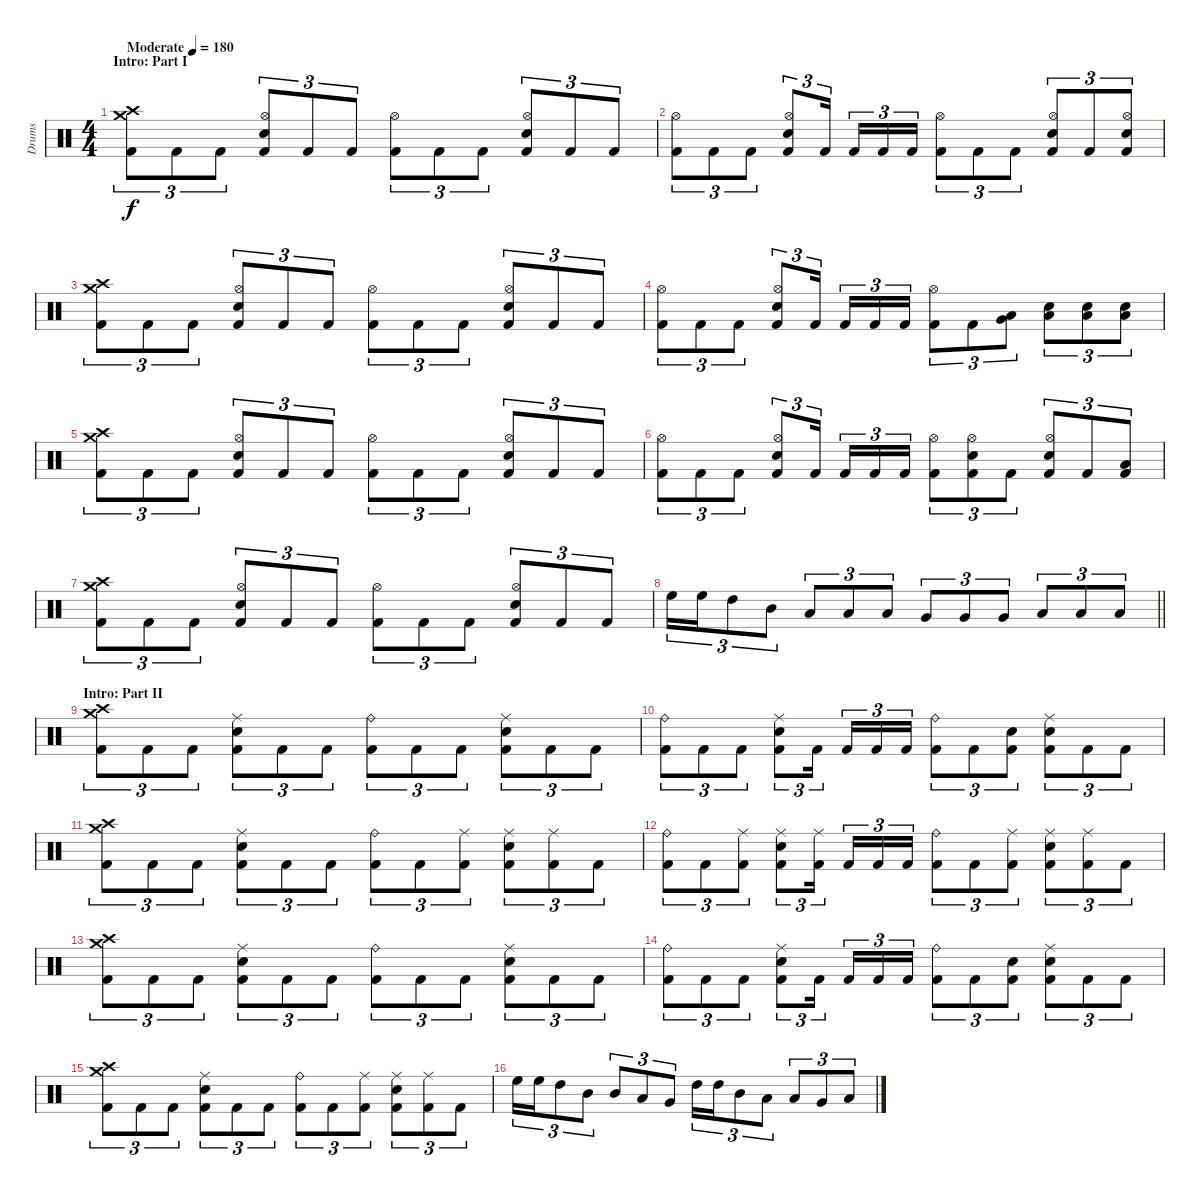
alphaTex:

\track ("Drums" "Drums") {instrument percussion}
\staff {score}
\articulation defaults
\ts (4 4)
\section ("" "Intro: Part I")
\tempo (180 "Moderate")
\clef neutral
\ks c
("Crash medium (hit)" "Crash high (hit)" "Kick (hit) 2").8{tu (3 2) dy f} "Kick (hit) 2".8{tu (3 2)} "Kick (hit) 2".8{tu (3 2)} ("Hi-Hat (open)" "Electric Snare (hit)" "Kick (hit) 2").8{tu (3 2)} "Kick (hit) 2".8{tu (3 2)} "Kick (hit) 2".8{tu (3 2)} ("Hi-Hat (open)" "Kick (hit) 2").8{tu (3 2)} "Kick (hit) 2".8{tu (3 2)} "Kick (hit) 2".8{tu (3 2)} ("Hi-Hat (open)" "Electric Snare (hit)" "Kick (hit) 2").8{tu (3 2)} "Kick (hit) 2".8{tu (3 2)} "Kick (hit) 2".8{tu (3 2)} |
("Hi-Hat (open)" "Kick (hit) 2").8{tu (3 2)} "Kick (hit) 2".8{tu (3 2)} "Kick (hit) 2".8{tu (3 2)} ("Hi-Hat (open)" "Electric Snare (hit)" "Kick (hit) 2").8{tu (3 2)} "Kick (hit) 2".16{tu (3 2) beam splitsecondary} "Kick (hit) 2".16{tu (3 2)} "Kick (hit) 2".16{tu (3 2)} "Kick (hit) 2".16{tu (3 2)} ("Hi-Hat (open)" "Kick (hit) 2").8{tu (3 2)} "Kick (hit) 2".8{tu (3 2)} "Kick (hit) 2".8{tu (3 2)} ("Hi-Hat (open)" "Electric Snare (hit)" "Kick (hit) 2").8{tu (3 2)} "Kick (hit) 2".8{tu (3 2)} ("Hi-Hat (open)" "Electric Snare (hit)" "Kick (hit) 2").8{tu (3 2)} |
("Crash medium (hit)" "Crash high (hit)" "Kick (hit) 2").8{tu (3 2)} "Kick (hit) 2".8{tu (3 2)} "Kick (hit) 2".8{tu (3 2)} ("Hi-Hat (open)" "Electric Snare (hit)" "Kick (hit) 2").8{tu (3 2)} "Kick (hit) 2".8{tu (3 2)} "Kick (hit) 2".8{tu (3 2)} ("Hi-Hat (open)" "Kick (hit) 2").8{tu (3 2)} "Kick (hit) 2".8{tu (3 2)} "Kick (hit) 2".8{tu (3 2)} ("Hi-Hat (open)" "Electric Snare (hit)" "Kick (hit) 2").8{tu (3 2)} "Kick (hit) 2".8{tu (3 2)} "Kick (hit) 2".8{tu (3 2)} |
("Hi-Hat (open)" "Kick (hit) 2").8{tu (3 2)} "Kick (hit) 2".8{tu (3 2)} "Kick (hit) 2".8{tu (3 2)} ("Hi-Hat (open)" "Electric Snare (hit)" "Kick (hit) 2").8{tu (3 2)} "Kick (hit) 2".16{tu (3 2) beam splitsecondary} "Kick (hit) 2".16{tu (3 2)} "Kick (hit) 2".16{tu (3 2)} "Kick (hit) 2".16{tu (3 2)} ("Hi-Hat (open)" "Kick (hit) 2").8{tu (3 2)} "Kick (hit) 2".8{tu (3 2)} ("Low Tom (hit)" "Very Low Tom (hit)").8{tu (3 2)} ("Low Floor Tom (hit)" "Electric Snare (hit)").8{tu (3 2)} ("Low Floor Tom (hit)" "Electric Snare (hit)").8{tu (3 2)} ("Low Floor Tom (hit)" "Electric Snare (hit)").8{tu (3 2)} |
("Crash medium (hit)" "Crash high (hit)" "Kick (hit) 2").8{tu (3 2)} "Kick (hit) 2".8{tu (3 2)} "Kick (hit) 2".8{tu (3 2)} ("Hi-Hat (open)" "Electric Snare (hit)" "Kick (hit) 2").8{tu (3 2)} "Kick (hit) 2".8{tu (3 2)} "Kick (hit) 2".8{tu (3 2)} ("Hi-Hat (open)" "Kick (hit) 2").8{tu (3 2)} "Kick (hit) 2".8{tu (3 2)} "Kick (hit) 2".8{tu (3 2)} ("Hi-Hat (open)" "Electric Snare (hit)" "Kick (hit) 2").8{tu (3 2)} "Kick (hit) 2".8{tu (3 2)} "Kick (hit) 2".8{tu (3 2)} |
("Hi-Hat (open)" "Kick (hit) 2").8{tu (3 2)} "Kick (hit) 2".8{tu (3 2)} "Kick (hit) 2".8{tu (3 2)} ("Hi-Hat (open)" "Electric Snare (hit)" "Kick (hit) 2").8{tu (3 2)} "Kick (hit) 2".16{tu (3 2) beam splitsecondary} "Kick (hit) 2".16{tu (3 2)} "Kick (hit) 2".16{tu (3 2)} "Kick (hit) 2".16{tu (3 2)} ("Hi-Hat (open)" "Kick (hit) 2").8{tu (3 2)} ("Hi-Hat (open)" "Electric Snare (hit)" "Kick (hit) 2").8{tu (3 2)} "Kick (hit) 2".8{tu (3 2)} ("Hi-Hat (open)" "Electric Snare (hit)" "Kick (hit) 2").8{tu (3 2)} "Kick (hit) 2".8{tu (3 2)} ("Low Floor Tom (hit)" "Kick (hit) 2").8{tu (3 2)} |
("Crash medium (hit)" "Crash high (hit)" "Kick (hit) 2").8{tu (3 2)} "Kick (hit) 2".8{tu (3 2)} "Kick (hit) 2".8{tu (3 2)} ("Hi-Hat (open)" "Electric Snare (hit)" "Kick (hit) 2").8{tu (3 2)} "Kick (hit) 2".8{tu (3 2)} "Kick (hit) 2".8{tu (3 2)} ("Hi-Hat (open)" "Kick (hit) 2").8{tu (3 2)} "Kick (hit) 2".8{tu (3 2)} "Kick (hit) 2".8{tu (3 2)} ("Hi-Hat (open)" "Electric Snare (hit)" "Kick (hit) 2").8{tu (3 2)} "Kick (hit) 2".8{tu (3 2)} "Kick (hit) 2".8{tu (3 2)} |
\barLineRight lightlight "High Floor Tom (hit)".16{tu (3 2)} "High Floor Tom (hit)".16{tu (3 2)} "High Tom (hit)".8{tu (3 2)} "Mid Tom (hit)".8{tu (3 2)} "Low Tom (hit)".8{tu (3 2)} "Low Tom (hit)".8{tu (3 2)} "Low Tom (hit)".8{tu (3 2)} "Very Low Tom (hit)".8{tu (3 2)} "Very Low Tom (hit)".8{tu (3 2)} "Very Low Tom (hit)".8{tu (3 2)} "Low Floor Tom (hit)".8{tu (3 2)} "Low Floor Tom (hit)".8{tu (3 2)} "Low Floor Tom (hit)".8{tu (3 2)}
|
\section ("" "Intro: Part II")
("Crash medium (hit)" "Crash high (hit)" "Kick (hit) 2").8{tu (3 2)} "Kick (hit) 2".8{tu (3 2)} "Kick (hit) 2".8{tu (3 2)} ("Ride (middle)" "Electric Snare (hit)" "Kick (hit) 2").8{tu (3 2)} "Kick (hit) 2".8{tu (3 2)} "Kick (hit) 2".8{tu (3 2)} ("Ride (bell)" "Kick (hit) 2").8{tu (3 2)} "Kick (hit) 2".8{tu (3 2)} "Kick (hit) 2".8{tu (3 2)} ("Ride (middle)" "Electric Snare (hit)" "Kick (hit) 2").8{tu (3 2)} "Kick (hit) 2".8{tu (3 2)} "Kick (hit) 2".8{tu (3 2)} |
("Ride (bell)" "Kick (hit) 2").8{tu (3 2)} "Kick (hit) 2".8{tu (3 2)} "Kick (hit) 2".8{tu (3 2)} ("Ride (middle)" "Electric Snare (hit)" "Kick (hit) 2").8{tu (3 2)} "Kick (hit) 2".16{tu (3 2) beam splitsecondary} "Kick (hit) 2".16{tu (3 2)} "Kick (hit) 2".16{tu (3 2)} "Kick (hit) 2".16{tu (3 2)} ("Ride (bell)" "Kick (hit) 2").8{tu (3 2)} "Kick (hit) 2".8{tu (3 2)} ("Electric Snare (hit)" "Kick (hit) 2").8{tu (3 2)} ("Ride (middle)" "Electric Snare (hit)" "Kick (hit) 2").8{tu (3 2)} "Kick (hit) 2".8{tu (3 2)} "Kick (hit) 2".8{tu (3 2)} |
("Crash medium (hit)" "Crash high (hit)" "Kick (hit) 2").8{tu (3 2)} "Kick (hit) 2".8{tu (3 2)} "Kick (hit) 2".8{tu (3 2)} ("Ride (middle)" "Electric Snare (hit)" "Kick (hit) 2").8{tu (3 2)} "Kick (hit) 2".8{tu (3 2)} "Kick (hit) 2".8{tu (3 2)} ("Ride (bell)" "Kick (hit) 2").8{tu (3 2)} "Kick (hit) 2".8{tu (3 2)} ("Ride (middle)" "Kick (hit) 2").8{tu (3 2)} ("Ride (middle)" "Electric Snare (hit)" "Kick (hit) 2").8{tu (3 2)} ("Ride (middle)" "Kick (hit) 2").8{tu (3 2)} "Kick (hit) 2".8{tu (3 2)} |
("Ride (bell)" "Kick (hit) 2").8{tu (3 2)} "Kick (hit) 2".8{tu (3 2)} ("Ride (middle)" "Kick (hit) 2").8{tu (3 2)} ("Ride (middle)" "Electric Snare (hit)" "Kick (hit) 2").8{tu (3 2)} ("Ride (middle)" "Kick (hit) 2").16{tu (3 2) beam splitsecondary} "Kick (hit) 2".16{tu (3 2)} "Kick (hit) 2".16{tu (3 2)} "Kick (hit) 2".16{tu (3 2)} ("Ride (bell)" "Kick (hit) 2").8{tu (3 2)} "Kick (hit) 2".8{tu (3 2)} ("Ride (middle)" "Kick (hit) 2").8{tu (3 2)} ("Ride (middle)" "Electric Snare (hit)" "Kick (hit) 2").8{tu (3 2)} ("Ride (middle)" "Kick (hit) 2").8{tu (3 2)} "Kick (hit) 2".8{tu (3 2)} |
("Crash medium (hit)" "Crash high (hit)" "Kick (hit) 2").8{tu (3 2)} "Kick (hit) 2".8{tu (3 2)} "Kick (hit) 2".8{tu (3 2)} ("Ride (middle)" "Electric Snare (hit)" "Kick (hit) 2").8{tu (3 2)} "Kick (hit) 2".8{tu (3 2)} "Kick (hit) 2".8{tu (3 2)} ("Ride (bell)" "Kick (hit) 2").8{tu (3 2)} "Kick (hit) 2".8{tu (3 2)} "Kick (hit) 2".8{tu (3 2)} ("Ride (middle)" "Electric Snare (hit)" "Kick (hit) 2").8{tu (3 2)} "Kick (hit) 2".8{tu (3 2)} "Kick (hit) 2".8{tu (3 2)} |
("Ride (bell)" "Kick (hit) 2").8{tu (3 2)} "Kick (hit) 2".8{tu (3 2)} "Kick (hit) 2".8{tu (3 2)} ("Ride (middle)" "Electric Snare (hit)" "Kick (hit) 2").8{tu (3 2)} "Kick (hit) 2".16{tu (3 2) beam splitsecondary} "Kick (hit) 2".16{tu (3 2)} "Kick (hit) 2".16{tu (3 2)} "Kick (hit) 2".16{tu (3 2)} ("Ride (bell)" "Kick (hit) 2").8{tu (3 2)} "Kick (hit) 2".8{tu (3 2)} ("Electric Snare (hit)" "Kick (hit) 2").8{tu (3 2)} ("Ride (middle)" "Electric Snare (hit)" "Kick (hit) 2").8{tu (3 2)} "Kick (hit) 2".8{tu (3 2)} "Kick (hit) 2".8{tu (3 2)} |
("Crash medium (hit)" "Crash high (hit)" "Kick (hit) 2").8{tu (3 2)} "Kick (hit) 2".8{tu (3 2)} "Kick (hit) 2".8{tu (3 2)} ("Ride (middle)" "Electric Snare (hit)" "Kick (hit) 2").8{tu (3 2)} "Kick (hit) 2".8{tu (3 2)} "Kick (hit) 2".8{tu (3 2)} ("Ride (bell)" "Kick (hit) 2").8{tu (3 2)} "Kick (hit) 2".8{tu (3 2)} ("Ride (middle)" "Kick (hit) 2").8{tu (3 2)} ("Ride (middle)" "Electric Snare (hit)" "Kick (hit) 2").8{tu (3 2)} ("Ride (middle)" "Kick (hit) 2").8{tu (3 2)} "Kick (hit) 2".8{tu (3 2)} |
"High Floor Tom (hit)".16{tu (3 2)} "High Floor Tom (hit)".16{tu (3 2)} "High Tom (hit)".8{tu (3 2)} "Mid Tom (hit)".8{tu (3 2)} "Mid Tom (hit)".8{tu (3 2)} "Low Tom (hit)".8{tu (3 2)} "Very Low Tom (hit)".8{tu (3 2)} "High Tom (hit)".16{tu (3 2)} "High Tom (hit)".16{tu (3 2)} "Mid Tom (hit)".8{tu (3 2)} "Low Tom (hit)".8{tu (3 2)} "Low Tom (hit)".8{tu (3 2)} "Very Low Tom (hit)".8{tu (3 2)} "Low Floor Tom (hit)".8{tu (3 2)}
